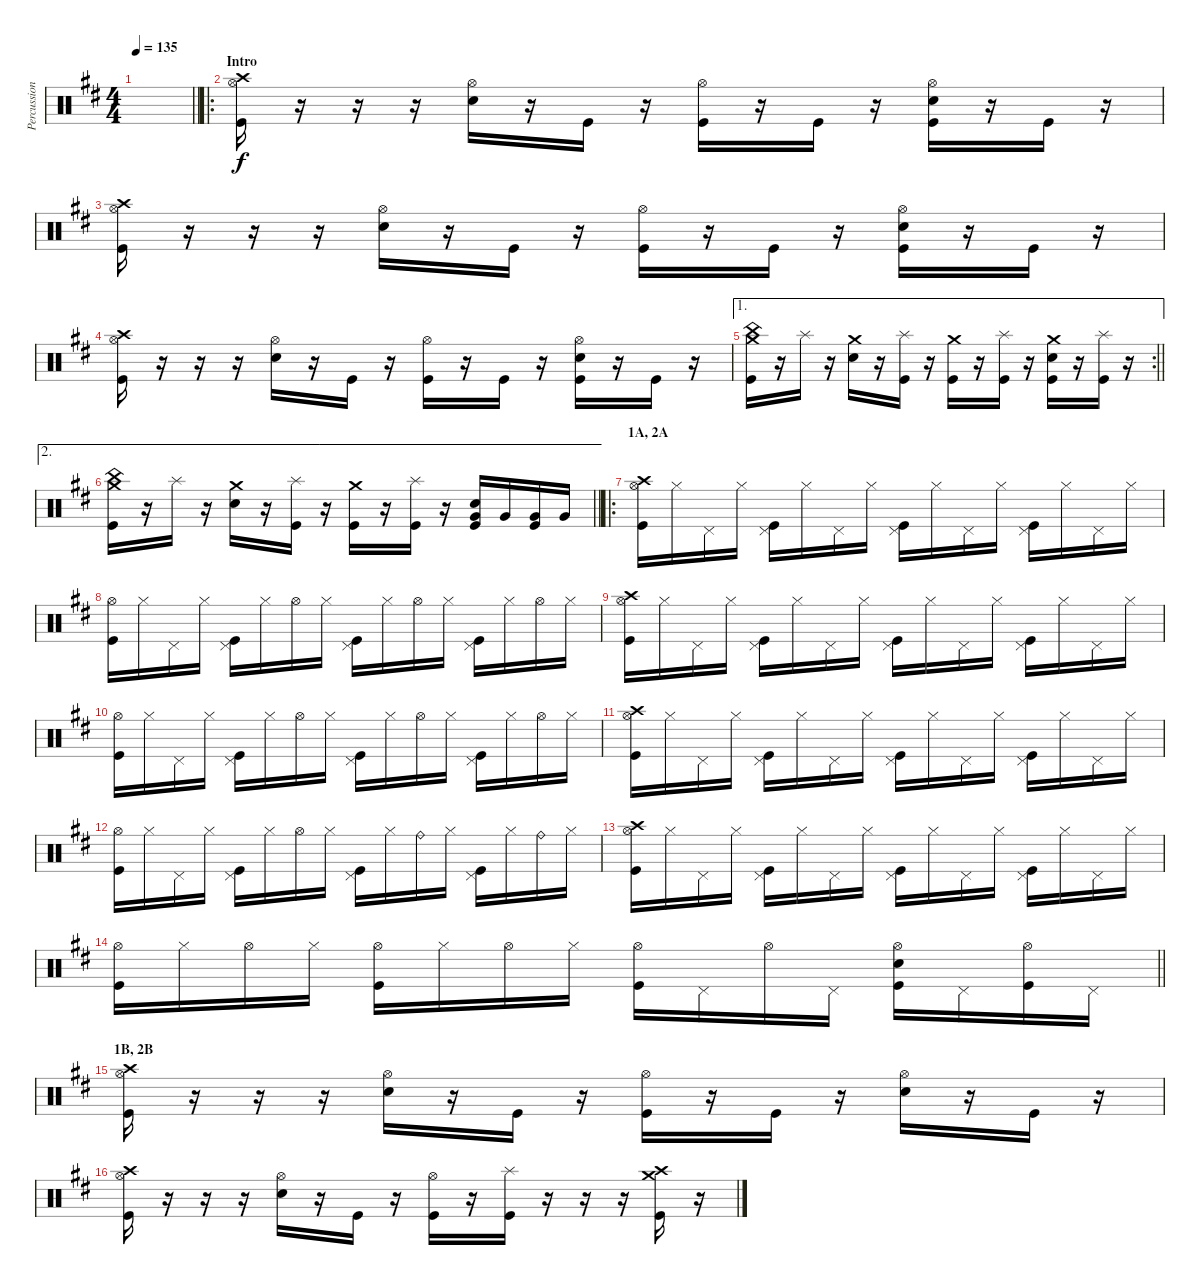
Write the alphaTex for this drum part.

\track ("Percussion" "Percussion") {instrument percussion}
\staff {score}
\articulation defaults
\ts (4 4)
\tempo 135
\clef neutral
\barLineRight lightlight
\ks bminor
|
\ro
\section ("" "Intro")
("Hi-Hat (open)" "Crash high (hit)" "Kick (hit)").16 r.16 r.16 r.16 ("Hi-Hat (open)" "Electric Snare (hit)").16 r.16 "Kick (hit)".16 r.16 ("Hi-Hat (open)" "Kick (hit)").16 r.16 "Kick (hit)".16 r.16 ("Hi-Hat (open)" "Electric Snare (hit)" "Kick (hit)").16 r.16 "Kick (hit)".16 r.16 |
("Hi-Hat (open)" "Crash high (hit)" "Kick (hit)").16 r.16 r.16 r.16 ("Hi-Hat (open)" "Electric Snare (hit)").16 r.16 "Kick (hit)".16 r.16 ("Hi-Hat (open)" "Kick (hit)").16 r.16 "Kick (hit)".16 r.16 ("Hi-Hat (open)" "Electric Snare (hit)" "Kick (hit)").16 r.16 "Kick (hit)".16 r.16 |
("Hi-Hat (open)" "Crash high (hit)" "Kick (hit)").16 r.16 r.16 r.16 ("Hi-Hat (open)" "Electric Snare (hit)").16 r.16 "Kick (hit)".16 r.16 ("Hi-Hat (open)" "Kick (hit)").16 r.16 "Kick (hit)".16 r.16 ("Hi-Hat (open)" "Electric Snare (hit)" "Kick (hit)").16 r.16 "Kick (hit)".16 r.16 |
\ae 1
\rc 2
\barLineRight lightlight
("Crash medium (hit)" "China (hit)" "Kick (hit)").16 r.16 "Splash (hit)".16 r.16 ("Crash medium (hit)" "Electric Snare (hit)").16 r.16 ("Splash (hit)" "Kick (hit)").16 r.16 ("Crash medium (hit)" "Kick (hit)").16 r.16 ("Splash (hit)" "Kick (hit)").16 r.16 ("Crash medium (hit)" "Electric Snare (hit)" "Kick (hit)").16 r.16 ("Splash (hit)" "Kick (hit)").16 r.16 |
\ae 2
\barLineRight lightlight
("Crash medium (hit)" "China (hit)" "Kick (hit)").16 r.16 "Splash (hit)".16 r.16 ("Crash medium (hit)" "Electric Snare (hit)").16 r.16 ("Splash (hit)" "Kick (hit)").16 r.16 ("Crash medium (hit)" "Kick (hit)").16 r.16 ("Splash (hit)" "Kick (hit)").16 r.16 ("Very Low Tom (hit)" "Electric Snare (hit)" "Kick (hit)").16 "Very Low Tom (hit)".16 ("Very Low Tom (hit)" "Kick (hit)").16 "Very Low Tom (hit)".16 |
\ro
\section ("" "1A, 2A")
("Hi-Hat (open)" "Crash high (hit)" "Kick (hit)").16 "Hi-Hat (closed)".16 "Pedal Hi-Hat (hit)".16 "Hi-Hat (closed)".16 ("Pedal Hi-Hat (hit)" "Kick (hit)").16 "Hi-Hat (closed)".16 "Pedal Hi-Hat (hit)".16 "Hi-Hat (closed)".16 ("Pedal Hi-Hat (hit)" "Kick (hit)").16 "Hi-Hat (closed)".16 "Pedal Hi-Hat (hit)".16 "Hi-Hat (closed)".16 ("Pedal Hi-Hat (hit)" "Kick (hit)").16 "Hi-Hat (closed)".16 "Pedal Hi-Hat (hit)".16 "Hi-Hat (closed)".16 |
("Hi-Hat (open)" "Kick (hit)").16 "Hi-Hat (closed)".16 "Pedal Hi-Hat (hit)".16 "Hi-Hat (closed)".16 ("Pedal Hi-Hat (hit)" "Kick (hit)").16 "Hi-Hat (closed)".16 "Hi-Hat (open)".16 "Hi-Hat (closed)".16 ("Pedal Hi-Hat (hit)" "Kick (hit)").16 "Hi-Hat (closed)".16 "Hi-Hat (open)".16 "Hi-Hat (closed)".16 ("Pedal Hi-Hat (hit)" "Kick (hit)").16 "Hi-Hat (closed)".16 "Hi-Hat (open)".16 "Hi-Hat (closed)".16 |
("Hi-Hat (open)" "Crash high (hit)" "Kick (hit)").16 "Hi-Hat (closed)".16 "Pedal Hi-Hat (hit)".16 "Hi-Hat (closed)".16 ("Pedal Hi-Hat (hit)" "Kick (hit)").16 "Hi-Hat (closed)".16 "Pedal Hi-Hat (hit)".16 "Hi-Hat (closed)".16 ("Pedal Hi-Hat (hit)" "Kick (hit)").16 "Hi-Hat (closed)".16 "Pedal Hi-Hat (hit)".16 "Hi-Hat (closed)".16 ("Pedal Hi-Hat (hit)" "Kick (hit)").16 "Hi-Hat (closed)".16 "Pedal Hi-Hat (hit)".16 "Hi-Hat (closed)".16 |
("Hi-Hat (open)" "Kick (hit)").16 "Hi-Hat (closed)".16 "Pedal Hi-Hat (hit)".16 "Hi-Hat (closed)".16 ("Pedal Hi-Hat (hit)" "Kick (hit)").16 "Hi-Hat (closed)".16 "Hi-Hat (open)".16 "Hi-Hat (closed)".16 ("Pedal Hi-Hat (hit)" "Kick (hit)").16 "Hi-Hat (closed)".16 "Hi-Hat (open)".16 "Hi-Hat (closed)".16 ("Pedal Hi-Hat (hit)" "Kick (hit)").16 "Hi-Hat (closed)".16 "Hi-Hat (open)".16 "Hi-Hat (closed)".16 |
("Hi-Hat (open)" "Crash high (hit)" "Kick (hit)").16 "Hi-Hat (closed)".16 "Pedal Hi-Hat (hit)".16 "Hi-Hat (closed)".16 ("Pedal Hi-Hat (hit)" "Kick (hit)").16 "Hi-Hat (closed)".16 "Pedal Hi-Hat (hit)".16 "Hi-Hat (closed)".16 ("Pedal Hi-Hat (hit)" "Kick (hit)").16 "Hi-Hat (closed)".16 "Pedal Hi-Hat (hit)".16 "Hi-Hat (closed)".16 ("Pedal Hi-Hat (hit)" "Kick (hit)").16 "Hi-Hat (closed)".16 "Pedal Hi-Hat (hit)".16 "Hi-Hat (closed)".16 |
("Hi-Hat (open)" "Kick (hit)").16 "Hi-Hat (closed)".16 "Pedal Hi-Hat (hit)".16 "Hi-Hat (closed)".16 ("Pedal Hi-Hat (hit)" "Kick (hit)").16 "Hi-Hat (closed)".16 "Hi-Hat (open)".16 "Hi-Hat (closed)".16 ("Pedal Hi-Hat (hit)" "Kick (hit)").16 "Hi-Hat (closed)".16 "Ride (bell)".16 "Hi-Hat (closed)".16 ("Pedal Hi-Hat (hit)" "Kick (hit)").16 "Hi-Hat (closed)".16 "Ride (bell)".16 "Hi-Hat (closed)".16 |
("Hi-Hat (open)" "Crash high (hit)" "Kick (hit)").16 "Hi-Hat (closed)".16 "Pedal Hi-Hat (hit)".16 "Hi-Hat (closed)".16 ("Pedal Hi-Hat (hit)" "Kick (hit)").16 "Hi-Hat (closed)".16 "Pedal Hi-Hat (hit)".16 "Hi-Hat (closed)".16 ("Pedal Hi-Hat (hit)" "Kick (hit)").16 "Hi-Hat (closed)".16 "Pedal Hi-Hat (hit)".16 "Hi-Hat (closed)".16 ("Pedal Hi-Hat (hit)" "Kick (hit)").16 "Hi-Hat (closed)".16 "Pedal Hi-Hat (hit)".16 "Hi-Hat (closed)".16 |
\barLineRight lightlight
("Hi-Hat (open)" "Kick (hit)").16 "Hi-Hat (closed)".16 "Hi-Hat (open)".16 "Hi-Hat (closed)".16 ("Hi-Hat (open)" "Kick (hit)").16 "Hi-Hat (closed)".16 "Hi-Hat (open)".16 "Hi-Hat (closed)".16 ("Hi-Hat (open)" "Kick (hit)").16 "Pedal Hi-Hat (hit)".16 "Hi-Hat (open)".16 "Pedal Hi-Hat (hit)".16 ("Hi-Hat (open)" "Electric Snare (hit)" "Kick (hit)").16 "Pedal Hi-Hat (hit)".16 ("Hi-Hat (open)" "Kick (hit)").16 "Pedal Hi-Hat (hit)".16 |
\section ("" "1B, 2B")
("Hi-Hat (open)" "Crash high (hit)" "Kick (hit)").16 r.16 r.16 r.16 ("Hi-Hat (open)" "Electric Snare (hit)").16 r.16 "Kick (hit)".16 r.16 ("Hi-Hat (open)" "Kick (hit)").16 r.16 "Kick (hit)".16 r.16 ("Hi-Hat (open)" "Electric Snare (hit)").16 r.16 "Kick (hit)".16 r.16 |
("Hi-Hat (open)" "Crash high (hit)" "Kick (hit)").16 r.16 r.16 r.16 ("Hi-Hat (open)" "Electric Snare (hit)").16 r.16 "Kick (hit)".16 r.16 ("Hi-Hat (open)" "Kick (hit)").16 r.16 ("Splash (hit)" "Kick (hit)").16 r.16 r.16 r.16 ("Crash medium (hit)" "Crash high (hit)" "Kick (hit)").16 r.16
